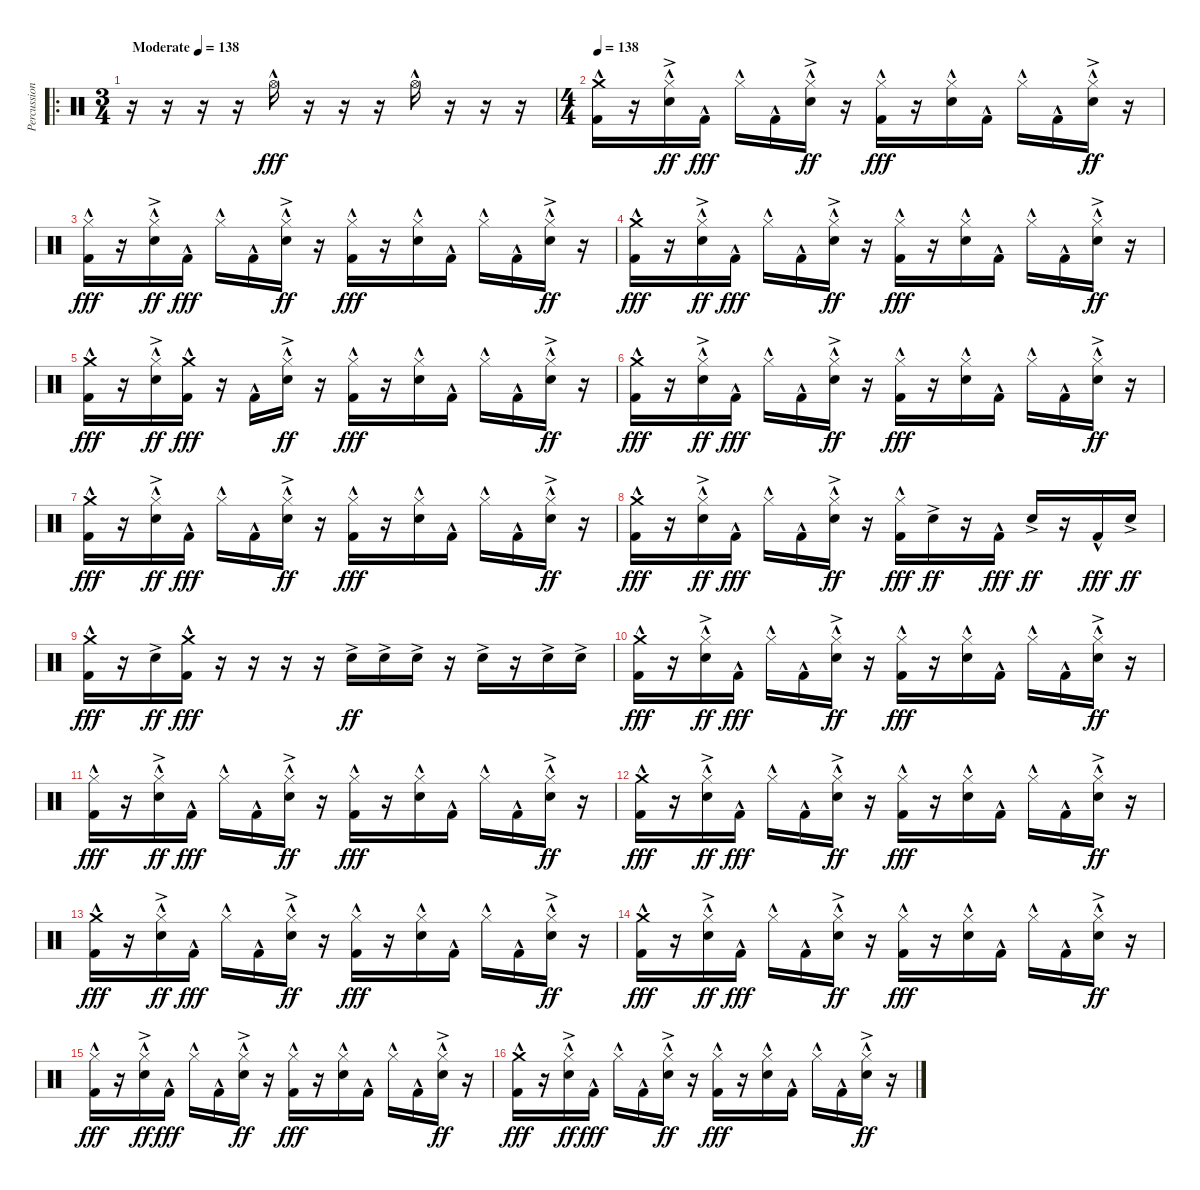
\track ("Percussion" "Percussion") {instrument percussion}
\staff {score}
\articulation defaults
\ro
\ts (3 4)
\tempo (138 "Moderate")
\tempo 276
\tempo (138 "Moderate")
\clef neutral
\ks c
r.16{dy fff} r.16 r.16 r.16 "Hi-Hat (open)"{hac}.16 r.16 r.16 r.16 "Hi-Hat (open)"{hac}.16 r.16 r.16 r.16 |
\ts (4 4)
\tempo 138
("Crash medium (hit)"{hac} "Kick (hit) 2"{hac}).16 r.16 ("Hi-Hat (closed)"{hac} "Snare (hit) 2"{ac}).16{dy ff} "Kick (hit) 2"{hac}.16{dy fff} "Hi-Hat (closed)"{hac}.16 "Kick (hit) 2"{hac}.16 ("Hi-Hat (closed)"{hac} "Snare (hit) 2"{ac}).16{dy ff} r.16 ("Hi-Hat (closed)"{hac} "Kick (hit) 2"{hac}).16{dy fff} r.16 ("Hi-Hat (closed)"{hac} "Snare (hit) 2").16 "Kick (hit) 2"{hac}.16 "Hi-Hat (closed)"{hac}.16 "Kick (hit) 2"{hac}.16 ("Hi-Hat (closed)"{hac} "Snare (hit) 2"{ac}).16{dy ff} r.16 |
("Hi-Hat (closed)"{hac} "Kick (hit) 2"{hac}).16{dy fff} r.16 ("Hi-Hat (closed)"{hac} "Snare (hit) 2"{ac}).16{dy ff} "Kick (hit) 2"{hac}.16{dy fff} "Hi-Hat (closed)"{hac}.16 "Kick (hit) 2"{hac}.16 ("Hi-Hat (closed)"{hac} "Snare (hit) 2"{ac}).16{dy ff} r.16 ("Hi-Hat (closed)"{hac} "Kick (hit) 2"{hac}).16{dy fff} r.16 ("Hi-Hat (closed)"{hac} "Snare (hit) 2").16 "Kick (hit) 2"{hac}.16 "Hi-Hat (closed)"{hac}.16 "Kick (hit) 2"{hac}.16 ("Hi-Hat (closed)"{hac} "Snare (hit) 2"{ac}).16{dy ff} r.16 |
("Crash medium (hit)"{hac} "Kick (hit) 2"{hac}).16{dy fff} r.16 ("Hi-Hat (closed)"{hac} "Snare (hit) 2"{ac}).16{dy ff} "Kick (hit) 2"{hac}.16{dy fff} "Hi-Hat (closed)"{hac}.16 "Kick (hit) 2"{hac}.16 ("Hi-Hat (closed)"{hac} "Snare (hit) 2"{ac}).16{dy ff} r.16 ("Hi-Hat (closed)"{hac} "Kick (hit) 2"{hac}).16{dy fff} r.16 ("Hi-Hat (closed)"{hac} "Snare (hit) 2").16 "Kick (hit) 2"{hac}.16 "Hi-Hat (closed)"{hac}.16 "Kick (hit) 2"{hac}.16 ("Hi-Hat (closed)"{hac} "Snare (hit) 2"{ac}).16{dy ff} r.16 |
("Crash medium (hit)"{hac} "Kick (hit) 2"{hac}).16{dy fff} r.16 ("Hi-Hat (closed)"{hac} "Snare (hit) 2"{ac}).16{dy ff} ("Crash medium (hit)"{hac} "Kick (hit) 2"{hac}).16{dy fff} r.16 "Kick (hit) 2"{hac}.16 ("Hi-Hat (closed)"{hac} "Snare (hit) 2"{ac}).16{dy ff} r.16 ("Hi-Hat (closed)"{hac} "Kick (hit) 2"{hac}).16{dy fff} r.16 ("Hi-Hat (closed)"{hac} "Snare (hit) 2").16 "Kick (hit) 2"{hac}.16 "Hi-Hat (closed)"{hac}.16 "Kick (hit) 2"{hac}.16 ("Hi-Hat (closed)"{hac} "Snare (hit) 2"{ac}).16{dy ff} r.16 |
("Crash medium (hit)"{hac} "Kick (hit) 2"{hac}).16{dy fff} r.16 ("Hi-Hat (closed)"{hac} "Snare (hit) 2"{ac}).16{dy ff} "Kick (hit) 2"{hac}.16{dy fff} "Hi-Hat (closed)"{hac}.16 "Kick (hit) 2"{hac}.16 ("Hi-Hat (closed)"{hac} "Snare (hit) 2"{ac}).16{dy ff} r.16 ("Hi-Hat (closed)"{hac} "Kick (hit) 2"{hac}).16{dy fff} r.16 ("Hi-Hat (closed)"{hac} "Snare (hit) 2").16 "Kick (hit) 2"{hac}.16 "Hi-Hat (closed)"{hac}.16 "Kick (hit) 2"{hac}.16 ("Hi-Hat (closed)"{hac} "Snare (hit) 2"{ac}).16{dy ff} r.16 |
("Crash medium (hit)"{hac} "Kick (hit) 2"{hac}).16{dy fff} r.16 ("Hi-Hat (closed)"{hac} "Snare (hit) 2"{ac}).16{dy ff} "Kick (hit) 2"{hac}.16{dy fff} "Hi-Hat (closed)"{hac}.16 "Kick (hit) 2"{hac}.16 ("Hi-Hat (closed)"{hac} "Snare (hit) 2"{ac}).16{dy ff} r.16 ("Hi-Hat (closed)"{hac} "Kick (hit) 2"{hac}).16{dy fff} r.16 ("Hi-Hat (closed)"{hac} "Snare (hit) 2").16 "Kick (hit) 2"{hac}.16 "Hi-Hat (closed)"{hac}.16 "Kick (hit) 2"{hac}.16 ("Hi-Hat (closed)"{hac} "Snare (hit) 2"{ac}).16{dy ff} r.16 |
("Crash medium (hit)"{hac} "Kick (hit) 2"{hac}).16{dy fff} r.16 ("Hi-Hat (closed)"{hac} "Snare (hit) 2"{ac}).16{dy ff} "Kick (hit) 2"{hac}.16{dy fff} "Hi-Hat (closed)"{hac}.16 "Kick (hit) 2"{hac}.16 ("Hi-Hat (closed)"{hac} "Snare (hit) 2"{ac}).16{dy ff} r.16 ("Hi-Hat (closed)"{hac} "Kick (hit) 2"{hac}).16{dy fff} "Snare (hit) 2"{ac}.16{dy ff} r.16 "Kick (hit) 2"{hac}.16{dy fff} "Snare (hit) 2"{ac}.16{dy ff} r.16 "Kick (hit) 2"{hac}.16{dy fff} "Snare (hit) 2"{ac}.16{dy ff} |
("Crash medium (hit)"{hac} "Kick (hit) 2"{hac}).16{dy fff} r.16 "Snare (hit) 2"{ac}.16{dy ff} ("Crash medium (hit)"{hac} "Kick (hit) 2"{hac}).16{dy fff} r.16 r.16 r.16 r.16 "Snare (hit) 2"{ac}.16{dy ff} "Snare (hit) 2"{ac}.16 "Snare (hit) 2"{ac}.16 r.16 "Snare (hit) 2"{ac}.16 r.16 "Snare (hit) 2"{ac}.16 "Snare (hit) 2"{ac}.16 |
("Crash medium (hit)"{hac} "Kick (hit) 2"{hac}).16{dy fff} r.16 ("Hi-Hat (closed)"{hac} "Snare (hit) 2"{ac}).16{dy ff} "Kick (hit) 2"{hac}.16{dy fff} "Hi-Hat (closed)"{hac}.16 "Kick (hit) 2"{hac}.16 ("Hi-Hat (closed)"{hac} "Snare (hit) 2"{ac}).16{dy ff} r.16 ("Hi-Hat (closed)"{hac} "Kick (hit) 2"{hac}).16{dy fff} r.16 ("Hi-Hat (closed)"{hac} "Snare (hit) 2").16 "Kick (hit) 2"{hac}.16 "Hi-Hat (closed)"{hac}.16 "Kick (hit) 2"{hac}.16 ("Hi-Hat (closed)"{hac} "Snare (hit) 2"{ac}).16{dy ff} r.16 |
("Hi-Hat (closed)"{hac} "Kick (hit) 2"{hac}).16{dy fff} r.16 ("Hi-Hat (closed)"{hac} "Snare (hit) 2"{ac}).16{dy ff} "Kick (hit) 2"{hac}.16{dy fff} "Hi-Hat (closed)"{hac}.16 "Kick (hit) 2"{hac}.16 ("Hi-Hat (closed)"{hac} "Snare (hit) 2"{ac}).16{dy ff} r.16 ("Hi-Hat (closed)"{hac} "Kick (hit) 2"{hac}).16{dy fff} r.16 ("Hi-Hat (closed)"{hac} "Snare (hit) 2").16 "Kick (hit) 2"{hac}.16 "Hi-Hat (closed)"{hac}.16 "Kick (hit) 2"{hac}.16 ("Hi-Hat (closed)"{hac} "Snare (hit) 2"{ac}).16{dy ff} r.16 |
("Crash medium (hit)"{hac} "Kick (hit) 2"{hac}).16{dy fff} r.16 ("Hi-Hat (closed)"{hac} "Snare (hit) 2"{ac}).16{dy ff} "Kick (hit) 2"{hac}.16{dy fff} "Hi-Hat (closed)"{hac}.16 "Kick (hit) 2"{hac}.16 ("Hi-Hat (closed)"{hac} "Snare (hit) 2"{ac}).16{dy ff} r.16 ("Hi-Hat (closed)"{hac} "Kick (hit) 2"{hac}).16{dy fff} r.16 ("Hi-Hat (closed)"{hac} "Snare (hit) 2").16 "Kick (hit) 2"{hac}.16 "Hi-Hat (closed)"{hac}.16 "Kick (hit) 2"{hac}.16 ("Hi-Hat (closed)"{hac} "Snare (hit) 2"{ac}).16{dy ff} r.16 |
("Crash medium (hit)"{hac} "Kick (hit) 2"{hac}).16{dy fff} r.16 ("Hi-Hat (closed)"{hac} "Snare (hit) 2"{ac}).16{dy ff} "Kick (hit) 2"{hac}.16{dy fff} "Hi-Hat (closed)"{hac}.16 "Kick (hit) 2"{hac}.16 ("Hi-Hat (closed)"{hac} "Snare (hit) 2"{ac}).16{dy ff} r.16 ("Hi-Hat (closed)"{hac} "Kick (hit) 2"{hac}).16{dy fff} r.16 ("Hi-Hat (closed)"{hac} "Snare (hit) 2").16 "Kick (hit) 2"{hac}.16 "Hi-Hat (closed)"{hac}.16 "Kick (hit) 2"{hac}.16 ("Hi-Hat (closed)"{hac} "Snare (hit) 2"{ac}).16{dy ff} r.16 |
("Crash medium (hit)"{hac} "Kick (hit) 2"{hac}).16{dy fff} r.16 ("Hi-Hat (closed)"{hac} "Snare (hit) 2"{ac}).16{dy ff} "Kick (hit) 2"{hac}.16{dy fff} "Hi-Hat (closed)"{hac}.16 "Kick (hit) 2"{hac}.16 ("Hi-Hat (closed)"{hac} "Snare (hit) 2"{ac}).16{dy ff} r.16 ("Hi-Hat (closed)"{hac} "Kick (hit) 2"{hac}).16{dy fff} r.16 ("Hi-Hat (closed)"{hac} "Snare (hit) 2").16 "Kick (hit) 2"{hac}.16 "Hi-Hat (closed)"{hac}.16 "Kick (hit) 2"{hac}.16 ("Hi-Hat (closed)"{hac} "Snare (hit) 2"{ac}).16{dy ff} r.16 |
("Hi-Hat (closed)"{hac} "Kick (hit) 2"{hac}).16{dy fff} r.16 ("Hi-Hat (closed)"{hac} "Snare (hit) 2"{ac}).16{dy ff} "Kick (hit) 2"{hac}.16{dy fff} "Hi-Hat (closed)"{hac}.16 "Kick (hit) 2"{hac}.16 ("Hi-Hat (closed)"{hac} "Snare (hit) 2"{ac}).16{dy ff} r.16 ("Hi-Hat (closed)"{hac} "Kick (hit) 2"{hac}).16{dy fff} r.16 ("Hi-Hat (closed)"{hac} "Snare (hit) 2").16 "Kick (hit) 2"{hac}.16 "Hi-Hat (closed)"{hac}.16 "Kick (hit) 2"{hac}.16 ("Hi-Hat (closed)"{hac} "Snare (hit) 2"{ac}).16{dy ff} r.16 |
("Crash medium (hit)"{hac} "Kick (hit) 2"{hac}).16{dy fff} r.16 ("Hi-Hat (closed)"{hac} "Snare (hit) 2"{ac}).16{dy ff} "Kick (hit) 2"{hac}.16{dy fff} "Hi-Hat (closed)"{hac}.16 "Kick (hit) 2"{hac}.16 ("Hi-Hat (closed)"{hac} "Snare (hit) 2"{ac}).16{dy ff} r.16 ("Hi-Hat (closed)"{hac} "Kick (hit) 2"{hac}).16{dy fff} r.16 ("Hi-Hat (closed)"{hac} "Snare (hit) 2").16 "Kick (hit) 2"{hac}.16 "Hi-Hat (closed)"{hac}.16 "Kick (hit) 2"{hac}.16 ("Hi-Hat (closed)"{hac} "Snare (hit) 2"{ac}).16{dy ff} r.16
